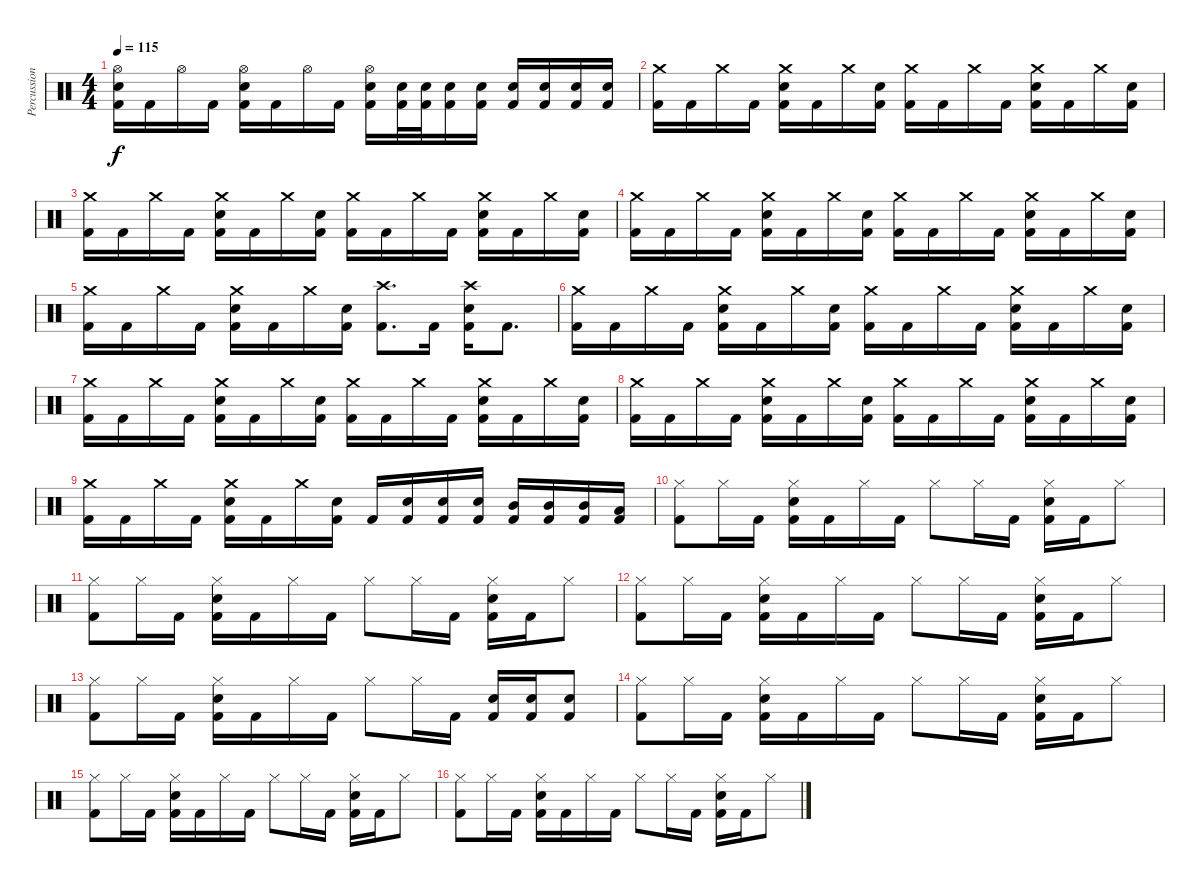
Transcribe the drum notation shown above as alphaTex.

\track ("Percussion" "Percussion") {instrument percussion}
\staff {score}
\articulation defaults
\ts (4 4)
\tempo 115
\clef neutral
\ks c
("Snare (hit) 2" "Kick (hit) 2" "Hi-Hat (open)").16{dy f} "Kick (hit) 2".16 "Hi-Hat (open)".16 "Kick (hit) 2".16 ("Snare (hit) 2" "Kick (hit) 2" "Hi-Hat (open)").16 "Kick (hit) 2".16 "Hi-Hat (open)".16 "Kick (hit) 2".16 ("Snare (hit) 2" "Kick (hit) 2" "Hi-Hat (open)").16 ("Snare (hit) 2" "Kick (hit) 2").32 ("Snare (hit) 2" "Kick (hit) 2").32 ("Snare (hit) 2" "Kick (hit) 2").16 ("Snare (hit) 2" "Kick (hit) 2").16 ("Snare (hit) 2" "Kick (hit) 2").16 ("Snare (hit) 2" "Kick (hit) 2").16 ("Snare (hit) 2" "Kick (hit) 2").16 ("Snare (hit) 2" "Kick (hit) 2").16 |
("Kick (hit) 2" "Crash medium (hit)").16 "Kick (hit) 2".16 "Crash medium (hit)".16 "Kick (hit) 2".16 ("Snare (hit) 2" "Kick (hit) 2" "Crash medium (hit)").16 "Kick (hit) 2".16 "Crash medium (hit)".16 ("Snare (hit) 2" "Kick (hit) 2").16 ("Kick (hit) 2" "Crash medium (hit)").16 "Kick (hit) 2".16 "Crash medium (hit)".16 "Kick (hit) 2".16 ("Snare (hit) 2" "Kick (hit) 2" "Crash medium (hit)").16 "Kick (hit) 2".16 "Crash medium (hit)".16 ("Snare (hit) 2" "Kick (hit) 2").16 |
("Kick (hit) 2" "Crash medium (hit)").16 "Kick (hit) 2".16 "Crash medium (hit)".16 "Kick (hit) 2".16 ("Snare (hit) 2" "Kick (hit) 2" "Crash medium (hit)").16 "Kick (hit) 2".16 "Crash medium (hit)".16 ("Snare (hit) 2" "Kick (hit) 2").16 ("Kick (hit) 2" "Crash medium (hit)").16 "Kick (hit) 2".16 "Crash medium (hit)".16 "Kick (hit) 2".16 ("Snare (hit) 2" "Kick (hit) 2" "Crash medium (hit)").16 "Kick (hit) 2".16 "Crash medium (hit)".16 ("Snare (hit) 2" "Kick (hit) 2").16 |
("Kick (hit) 2" "Crash medium (hit)").16 "Kick (hit) 2".16 "Crash medium (hit)".16 "Kick (hit) 2".16 ("Snare (hit) 2" "Kick (hit) 2" "Crash medium (hit)").16 "Kick (hit) 2".16 "Crash medium (hit)".16 ("Snare (hit) 2" "Kick (hit) 2").16 ("Kick (hit) 2" "Crash medium (hit)").16 "Kick (hit) 2".16 "Crash medium (hit)".16 "Kick (hit) 2".16 ("Snare (hit) 2" "Kick (hit) 2" "Crash medium (hit)").16 "Kick (hit) 2".16 "Crash medium (hit)".16 ("Snare (hit) 2" "Kick (hit) 2").16 |
("Kick (hit) 2" "Crash medium (hit)").16 "Kick (hit) 2".16 "Crash medium (hit)".16 "Kick (hit) 2".16 ("Snare (hit) 2" "Kick (hit) 2" "Crash medium (hit)").16 "Kick (hit) 2".16 "Crash medium (hit)".16 ("Snare (hit) 2" "Kick (hit) 2").16 ("Kick (hit) 2" "Crash high (hit)").8{d} "Kick (hit) 2".16 ("Snare (hit) 2" "Kick (hit) 2" "Crash high (hit)").16 "Kick (hit) 2".8{d} |
("Kick (hit) 2" "Crash medium (hit)").16 "Kick (hit) 2".16 "Crash medium (hit)".16 "Kick (hit) 2".16 ("Snare (hit) 2" "Kick (hit) 2" "Crash medium (hit)").16 "Kick (hit) 2".16 "Crash medium (hit)".16 ("Snare (hit) 2" "Kick (hit) 2").16 ("Kick (hit) 2" "Crash medium (hit)").16 "Kick (hit) 2".16 "Crash medium (hit)".16 "Kick (hit) 2".16 ("Snare (hit) 2" "Kick (hit) 2" "Crash medium (hit)").16 "Kick (hit) 2".16 "Crash medium (hit)".16 ("Snare (hit) 2" "Kick (hit) 2").16 |
("Kick (hit) 2" "Crash medium (hit)").16 "Kick (hit) 2".16 "Crash medium (hit)".16 "Kick (hit) 2".16 ("Snare (hit) 2" "Kick (hit) 2" "Crash medium (hit)").16 "Kick (hit) 2".16 "Crash medium (hit)".16 ("Snare (hit) 2" "Kick (hit) 2").16 ("Kick (hit) 2" "Crash medium (hit)").16 "Kick (hit) 2".16 "Crash medium (hit)".16 "Kick (hit) 2".16 ("Snare (hit) 2" "Kick (hit) 2" "Crash medium (hit)").16 "Kick (hit) 2".16 "Crash medium (hit)".16 ("Snare (hit) 2" "Kick (hit) 2").16 |
("Kick (hit) 2" "Crash medium (hit)").16 "Kick (hit) 2".16 "Crash medium (hit)".16 "Kick (hit) 2".16 ("Snare (hit) 2" "Kick (hit) 2" "Crash medium (hit)").16 "Kick (hit) 2".16 "Crash medium (hit)".16 ("Snare (hit) 2" "Kick (hit) 2").16 ("Kick (hit) 2" "Crash medium (hit)").16 "Kick (hit) 2".16 "Crash medium (hit)".16 "Kick (hit) 2".16 ("Snare (hit) 2" "Kick (hit) 2" "Crash medium (hit)").16 "Kick (hit) 2".16 "Crash medium (hit)".16 ("Snare (hit) 2" "Kick (hit) 2").16 |
("Kick (hit) 2" "Crash medium (hit)").16 "Kick (hit) 2".16 "Crash medium (hit)".16 "Kick (hit) 2".16 ("Snare (hit) 2" "Kick (hit) 2" "Crash medium (hit)").16 "Kick (hit) 2".16 "Crash medium (hit)".16 ("Snare (hit) 2" "Kick (hit) 2").16 "Kick (hit) 2".16 ("Snare (hit) 2" "Kick (hit) 2").16 ("Snare (hit) 2" "Kick (hit) 2").16 ("Snare (hit) 2" "Kick (hit) 2").16 ("Mid Tom (hit)" "Kick (hit) 2").16 ("Mid Tom (hit)" "Kick (hit) 2").16 ("Mid Tom (hit)" "Kick (hit) 2").16 ("Low Tom (hit)" "Kick (hit) 2").16 |
("Kick (hit) 2" "Hi-Hat (closed)").8 "Hi-Hat (closed)".16 "Kick (hit) 2".16 ("Snare (hit) 2" "Kick (hit) 2" "Hi-Hat (closed)").16 "Kick (hit) 2".16 "Hi-Hat (closed)".16 "Kick (hit) 2".16 "Hi-Hat (closed)".8 "Hi-Hat (closed)".16 "Kick (hit) 2".16 ("Snare (hit) 2" "Kick (hit) 2" "Hi-Hat (closed)").16 "Kick (hit) 2".16 "Hi-Hat (closed)".8 |
("Kick (hit) 2" "Hi-Hat (closed)").8 "Hi-Hat (closed)".16 "Kick (hit) 2".16 ("Snare (hit) 2" "Kick (hit) 2" "Hi-Hat (closed)").16 "Kick (hit) 2".16 "Hi-Hat (closed)".16 "Kick (hit) 2".16 "Hi-Hat (closed)".8 "Hi-Hat (closed)".16 "Kick (hit) 2".16 ("Snare (hit) 2" "Kick (hit) 2" "Hi-Hat (closed)").16 "Kick (hit) 2".16 "Hi-Hat (closed)".8 |
("Kick (hit) 2" "Hi-Hat (closed)").8 "Hi-Hat (closed)".16 "Kick (hit) 2".16 ("Snare (hit) 2" "Kick (hit) 2" "Hi-Hat (closed)").16 "Kick (hit) 2".16 "Hi-Hat (closed)".16 "Kick (hit) 2".16 "Hi-Hat (closed)".8 "Hi-Hat (closed)".16 "Kick (hit) 2".16 ("Snare (hit) 2" "Kick (hit) 2" "Hi-Hat (closed)").16 "Kick (hit) 2".16 "Hi-Hat (closed)".8 |
("Kick (hit) 2" "Hi-Hat (closed)").8 "Hi-Hat (closed)".16 "Kick (hit) 2".16 ("Snare (hit) 2" "Kick (hit) 2" "Hi-Hat (closed)").16 "Kick (hit) 2".16 "Hi-Hat (closed)".16 "Kick (hit) 2".16 "Hi-Hat (closed)".8 "Hi-Hat (closed)".16 "Kick (hit) 2".16 ("Snare (hit) 2" "Kick (hit) 2").16 ("Snare (hit) 2" "Kick (hit) 2").16 ("Snare (hit) 2" "Kick (hit) 2").8 |
("Kick (hit) 2" "Hi-Hat (closed)").8 "Hi-Hat (closed)".16 "Kick (hit) 2".16 ("Snare (hit) 2" "Kick (hit) 2" "Hi-Hat (closed)").16 "Kick (hit) 2".16 "Hi-Hat (closed)".16 "Kick (hit) 2".16 "Hi-Hat (closed)".8 "Hi-Hat (closed)".16 "Kick (hit) 2".16 ("Snare (hit) 2" "Kick (hit) 2" "Hi-Hat (closed)").16 "Kick (hit) 2".16 "Hi-Hat (closed)".8 |
("Kick (hit) 2" "Hi-Hat (closed)").8 "Hi-Hat (closed)".16 "Kick (hit) 2".16 ("Snare (hit) 2" "Kick (hit) 2" "Hi-Hat (closed)").16 "Kick (hit) 2".16 "Hi-Hat (closed)".16 "Kick (hit) 2".16 "Hi-Hat (closed)".8 "Hi-Hat (closed)".16 "Kick (hit) 2".16 ("Snare (hit) 2" "Kick (hit) 2" "Hi-Hat (closed)").16 "Kick (hit) 2".16 "Hi-Hat (closed)".8 |
("Kick (hit) 2" "Hi-Hat (closed)").8 "Hi-Hat (closed)".16 "Kick (hit) 2".16 ("Snare (hit) 2" "Kick (hit) 2" "Hi-Hat (closed)").16 "Kick (hit) 2".16 "Hi-Hat (closed)".16 "Kick (hit) 2".16 "Hi-Hat (closed)".8 "Hi-Hat (closed)".16 "Kick (hit) 2".16 ("Snare (hit) 2" "Kick (hit) 2" "Hi-Hat (closed)").16 "Kick (hit) 2".16 "Hi-Hat (closed)".8
